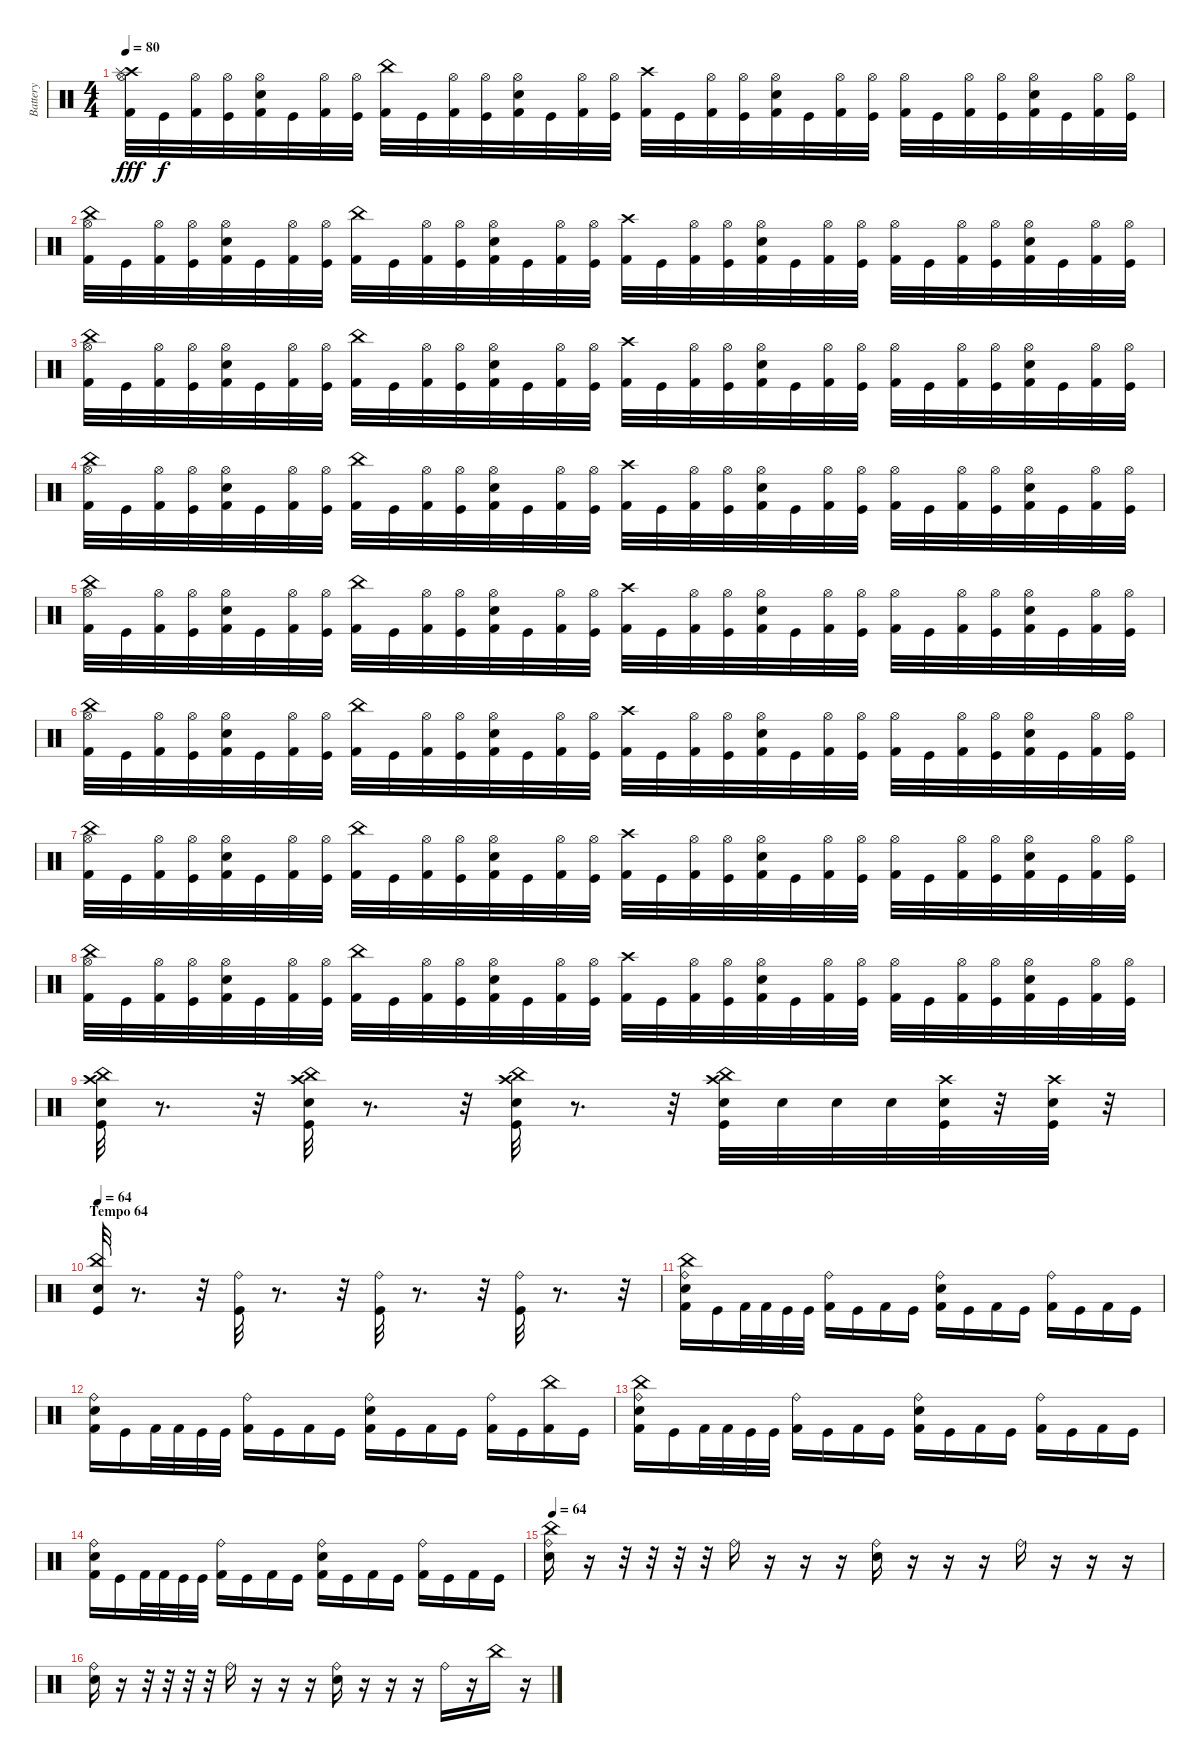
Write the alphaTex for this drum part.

\track ("Battery" "Battery") {instrument percussion}
\staff {score}
\articulation defaults
\ts (4 4)
\tempo 80
\clef neutral
\ks c
("Crash high (hit)" "Splash (hit)" "Kick (hit) 2" "Hi-Hat (open)").32{dy fff} "Kick (hit)".32{dy f} ("Kick (hit) 2" "Hi-Hat (open)").32 ("Hi-Hat (open)" "Kick (hit)").32 ("Kick (hit) 2" "Electric Snare (hit)" "Hi-Hat (open)").32 "Kick (hit)".32 ("Kick (hit) 2" "Hi-Hat (open)").32 ("Kick (hit)" "Hi-Hat (open)").32 ("Kick (hit) 2" "China (hit)").32 "Kick (hit)".32 ("Kick (hit) 2" "Hi-Hat (open)").32 ("Hi-Hat (open)" "Kick (hit)").32 ("Electric Snare (hit)" "Kick (hit) 2" "Hi-Hat (open)").32 "Kick (hit)".32 ("Hi-Hat (open)" "Kick (hit) 2").32 ("Hi-Hat (open)" "Kick (hit)").32 ("Crash high (hit)" "Kick (hit) 2").32 "Kick (hit)".32 ("Kick (hit) 2" "Hi-Hat (open)").32 ("Kick (hit)" "Hi-Hat (open)").32 ("Hi-Hat (open)" "Electric Snare (hit)" "Kick (hit) 2").32 "Kick (hit)".32 ("Kick (hit) 2" "Hi-Hat (open)").32 ("Hi-Hat (open)" "Kick (hit)").32 ("Hi-Hat (open)" "Kick (hit) 2").32 "Kick (hit)".32 ("Hi-Hat (open)" "Kick (hit) 2").32 ("Hi-Hat (open)" "Kick (hit)").32 ("Kick (hit) 2" "Hi-Hat (open)" "Electric Snare (hit)").32 "Kick (hit)".32 ("Hi-Hat (open)" "Kick (hit) 2").32 ("Hi-Hat (open)" "Kick (hit)").32 |
("Kick (hit) 2" "Hi-Hat (open)" "China (hit)").32 "Kick (hit)".32 ("Hi-Hat (open)" "Kick (hit) 2").32 ("Kick (hit)" "Hi-Hat (open)").32 ("Electric Snare (hit)" "Hi-Hat (open)" "Kick (hit) 2").32 "Kick (hit)".32 ("Kick (hit) 2" "Hi-Hat (open)").32 ("Kick (hit)" "Hi-Hat (open)").32 ("Kick (hit) 2" "China (hit)").32 "Kick (hit)".32 ("Kick (hit) 2" "Hi-Hat (open)").32 ("Kick (hit)" "Hi-Hat (open)").32 ("Kick (hit) 2" "Electric Snare (hit)" "Hi-Hat (open)").32 "Kick (hit)".32 ("Kick (hit) 2" "Hi-Hat (open)").32 ("Hi-Hat (open)" "Kick (hit)").32 ("Kick (hit) 2" "Crash high (hit)").32 "Kick (hit)".32 ("Hi-Hat (open)" "Kick (hit) 2").32 ("Hi-Hat (open)" "Kick (hit)").32 ("Kick (hit) 2" "Hi-Hat (open)" "Electric Snare (hit)").32 "Kick (hit)".32 ("Hi-Hat (open)" "Kick (hit) 2").32 ("Kick (hit)" "Hi-Hat (open)").32 ("Kick (hit) 2" "Hi-Hat (open)").32 "Kick (hit)".32 ("Hi-Hat (open)" "Kick (hit) 2").32 ("Kick (hit)" "Hi-Hat (open)").32 ("Hi-Hat (open)" "Electric Snare (hit)" "Kick (hit) 2").32 "Kick (hit)".32 ("Hi-Hat (open)" "Kick (hit) 2").32 ("Hi-Hat (open)" "Kick (hit)").32 |
("Hi-Hat (open)" "China (hit)" "Kick (hit) 2").32 "Kick (hit)".32 ("Hi-Hat (open)" "Kick (hit) 2").32 ("Kick (hit)" "Hi-Hat (open)").32 ("Hi-Hat (open)" "Electric Snare (hit)" "Kick (hit) 2").32 "Kick (hit)".32 ("Kick (hit) 2" "Hi-Hat (open)").32 ("Kick (hit)" "Hi-Hat (open)").32 ("Kick (hit) 2" "China (hit)").32 "Kick (hit)".32 ("Kick (hit) 2" "Hi-Hat (open)").32 ("Kick (hit)" "Hi-Hat (open)").32 ("Hi-Hat (open)" "Kick (hit) 2" "Electric Snare (hit)").32 "Kick (hit)".32 ("Kick (hit) 2" "Hi-Hat (open)").32 ("Kick (hit)" "Hi-Hat (open)").32 ("Crash high (hit)" "Kick (hit) 2").32 "Kick (hit)".32 ("Kick (hit) 2" "Hi-Hat (open)").32 ("Hi-Hat (open)" "Kick (hit)").32 ("Hi-Hat (open)" "Kick (hit) 2" "Electric Snare (hit)").32 "Kick (hit)".32 ("Kick (hit) 2" "Hi-Hat (open)").32 ("Kick (hit)" "Hi-Hat (open)").32 ("Hi-Hat (open)" "Kick (hit) 2").32 "Kick (hit)".32 ("Hi-Hat (open)" "Kick (hit) 2").32 ("Hi-Hat (open)" "Kick (hit)").32 ("Electric Snare (hit)" "Hi-Hat (open)" "Kick (hit) 2").32 "Kick (hit)".32 ("Hi-Hat (open)" "Kick (hit) 2").32 ("Kick (hit)" "Hi-Hat (open)").32 |
("Hi-Hat (open)" "Kick (hit) 2" "China (hit)").32 "Kick (hit)".32 ("Hi-Hat (open)" "Kick (hit) 2").32 ("Kick (hit)" "Hi-Hat (open)").32 ("Electric Snare (hit)" "Hi-Hat (open)" "Kick (hit) 2").32 "Kick (hit)".32 ("Kick (hit) 2" "Hi-Hat (open)").32 ("Hi-Hat (open)" "Kick (hit)").32 ("China (hit)" "Kick (hit) 2").32 "Kick (hit)".32 ("Hi-Hat (open)" "Kick (hit) 2").32 ("Hi-Hat (open)" "Kick (hit)").32 ("Electric Snare (hit)" "Kick (hit) 2" "Hi-Hat (open)").32 "Kick (hit)".32 ("Kick (hit) 2" "Hi-Hat (open)").32 ("Kick (hit)" "Hi-Hat (open)").32 ("Kick (hit) 2" "Crash high (hit)").32 "Kick (hit)".32 ("Hi-Hat (open)" "Kick (hit) 2").32 ("Hi-Hat (open)" "Kick (hit)").32 ("Hi-Hat (open)" "Electric Snare (hit)" "Kick (hit) 2").32 "Kick (hit)".32 ("Hi-Hat (open)" "Kick (hit) 2").32 ("Hi-Hat (open)" "Kick (hit)").32 ("Hi-Hat (open)" "Kick (hit) 2").32 "Kick (hit)".32 ("Hi-Hat (open)" "Kick (hit) 2").32 ("Kick (hit)" "Hi-Hat (open)").32 ("Kick (hit) 2" "Electric Snare (hit)" "Hi-Hat (open)").32 "Kick (hit)".32 ("Hi-Hat (open)" "Kick (hit) 2").32 ("Hi-Hat (open)" "Kick (hit)").32 |
("Kick (hit) 2" "Hi-Hat (open)" "China (hit)").32 "Kick (hit)".32 ("Hi-Hat (open)" "Kick (hit) 2").32 ("Kick (hit)" "Hi-Hat (open)").32 ("Electric Snare (hit)" "Kick (hit) 2" "Hi-Hat (open)").32 "Kick (hit)".32 ("Kick (hit) 2" "Hi-Hat (open)").32 ("Hi-Hat (open)" "Kick (hit)").32 ("Kick (hit) 2" "China (hit)").32 "Kick (hit)".32 ("Hi-Hat (open)" "Kick (hit) 2").32 ("Kick (hit)" "Hi-Hat (open)").32 ("Kick (hit) 2" "Electric Snare (hit)" "Hi-Hat (open)").32 "Kick (hit)".32 ("Kick (hit) 2" "Hi-Hat (open)").32 ("Hi-Hat (open)" "Kick (hit)").32 ("Crash high (hit)" "Kick (hit) 2").32 "Kick (hit)".32 ("Kick (hit) 2" "Hi-Hat (open)").32 ("Kick (hit)" "Hi-Hat (open)").32 ("Electric Snare (hit)" "Hi-Hat (open)" "Kick (hit) 2").32 "Kick (hit)".32 ("Hi-Hat (open)" "Kick (hit) 2").32 ("Hi-Hat (open)" "Kick (hit)").32 ("Hi-Hat (open)" "Kick (hit) 2").32 "Kick (hit)".32 ("Hi-Hat (open)" "Kick (hit) 2").32 ("Kick (hit)" "Hi-Hat (open)").32 ("Hi-Hat (open)" "Electric Snare (hit)" "Kick (hit) 2").32 "Kick (hit)".32 ("Kick (hit) 2" "Hi-Hat (open)").32 ("Hi-Hat (open)" "Kick (hit)").32 |
("Kick (hit) 2" "China (hit)" "Hi-Hat (open)").32 "Kick (hit)".32 ("Kick (hit) 2" "Hi-Hat (open)").32 ("Hi-Hat (open)" "Kick (hit)").32 ("Electric Snare (hit)" "Kick (hit) 2" "Hi-Hat (open)").32 "Kick (hit)".32 ("Hi-Hat (open)" "Kick (hit) 2").32 ("Kick (hit)" "Hi-Hat (open)").32 ("China (hit)" "Kick (hit) 2").32 "Kick (hit)".32 ("Hi-Hat (open)" "Kick (hit) 2").32 ("Hi-Hat (open)" "Kick (hit)").32 ("Electric Snare (hit)" "Kick (hit) 2" "Hi-Hat (open)").32 "Kick (hit)".32 ("Kick (hit) 2" "Hi-Hat (open)").32 ("Hi-Hat (open)" "Kick (hit)").32 ("Crash high (hit)" "Kick (hit) 2").32 "Kick (hit)".32 ("Kick (hit) 2" "Hi-Hat (open)").32 ("Kick (hit)" "Hi-Hat (open)").32 ("Kick (hit) 2" "Hi-Hat (open)" "Electric Snare (hit)").32 "Kick (hit)".32 ("Kick (hit) 2" "Hi-Hat (open)").32 ("Hi-Hat (open)" "Kick (hit)").32 ("Hi-Hat (open)" "Kick (hit) 2").32 "Kick (hit)".32 ("Kick (hit) 2" "Hi-Hat (open)").32 ("Hi-Hat (open)" "Kick (hit)").32 ("Kick (hit) 2" "Hi-Hat (open)" "Electric Snare (hit)").32 "Kick (hit)".32 ("Hi-Hat (open)" "Kick (hit) 2").32 ("Hi-Hat (open)" "Kick (hit)").32 |
("Kick (hit) 2" "Hi-Hat (open)" "China (hit)").32 "Kick (hit)".32 ("Hi-Hat (open)" "Kick (hit) 2").32 ("Kick (hit)" "Hi-Hat (open)").32 ("Kick (hit) 2" "Electric Snare (hit)" "Hi-Hat (open)").32 "Kick (hit)".32 ("Hi-Hat (open)" "Kick (hit) 2").32 ("Hi-Hat (open)" "Kick (hit)").32 ("China (hit)" "Kick (hit) 2").32 "Kick (hit)".32 ("Kick (hit) 2" "Hi-Hat (open)").32 ("Hi-Hat (open)" "Kick (hit)").32 ("Electric Snare (hit)" "Hi-Hat (open)" "Kick (hit) 2").32 "Kick (hit)".32 ("Kick (hit) 2" "Hi-Hat (open)").32 ("Kick (hit)" "Hi-Hat (open)").32 ("Kick (hit) 2" "Crash high (hit)").32 "Kick (hit)".32 ("Hi-Hat (open)" "Kick (hit) 2").32 ("Kick (hit)" "Hi-Hat (open)").32 ("Kick (hit) 2" "Electric Snare (hit)" "Hi-Hat (open)").32 "Kick (hit)".32 ("Kick (hit) 2" "Hi-Hat (open)").32 ("Hi-Hat (open)" "Kick (hit)").32 ("Hi-Hat (open)" "Kick (hit) 2").32 "Kick (hit)".32 ("Kick (hit) 2" "Hi-Hat (open)").32 ("Kick (hit)" "Hi-Hat (open)").32 ("Hi-Hat (open)" "Kick (hit) 2" "Electric Snare (hit)").32 "Kick (hit)".32 ("Kick (hit) 2" "Hi-Hat (open)").32 ("Hi-Hat (open)" "Kick (hit)").32 |
("China (hit)" "Hi-Hat (open)" "Kick (hit) 2").32 "Kick (hit)".32 ("Kick (hit) 2" "Hi-Hat (open)").32 ("Kick (hit)" "Hi-Hat (open)").32 ("Hi-Hat (open)" "Electric Snare (hit)" "Kick (hit) 2").32 "Kick (hit)".32 ("Kick (hit) 2" "Hi-Hat (open)").32 ("Kick (hit)" "Hi-Hat (open)").32 ("Kick (hit) 2" "China (hit)").32 "Kick (hit)".32 ("Kick (hit) 2" "Hi-Hat (open)").32 ("Hi-Hat (open)" "Kick (hit)").32 ("Electric Snare (hit)" "Hi-Hat (open)" "Kick (hit) 2").32 "Kick (hit)".32 ("Kick (hit) 2" "Hi-Hat (open)").32 ("Hi-Hat (open)" "Kick (hit)").32 ("Kick (hit) 2" "Crash high (hit)").32 "Kick (hit)".32 ("Kick (hit) 2" "Hi-Hat (open)").32 ("Kick (hit)" "Hi-Hat (open)").32 ("Hi-Hat (open)" "Electric Snare (hit)" "Kick (hit) 2").32 "Kick (hit)".32 ("Hi-Hat (open)" "Kick (hit) 2").32 ("Kick (hit)" "Hi-Hat (open)").32 ("Kick (hit) 2" "Hi-Hat (open)").32 "Kick (hit)".32 ("Kick (hit) 2" "Hi-Hat (open)").32 ("Hi-Hat (open)" "Kick (hit)").32 ("Hi-Hat (open)" "Electric Snare (hit)" "Kick (hit) 2").32 "Kick (hit)".32 ("Hi-Hat (open)" "Kick (hit) 2").32 ("Hi-Hat (open)" "Kick (hit)").32 |
("China (hit)" "Crash high (hit)" "Electric Snare (hit)" "Kick (hit)").32 r.8{d} r.32 ("China (hit)" "Kick (hit)" "Crash high (hit)" "Electric Snare (hit)").32 r.8{d} r.32 ("China (hit)" "Electric Snare (hit)" "Kick (hit)" "Crash high (hit)").32 r.8{d} r.32 ("Crash high (hit)" "Kick (hit)" "China (hit)" "Electric Snare (hit)").32 "Electric Snare (hit)".32 "Electric Snare (hit)".32 "Electric Snare (hit)".32 ("Kick (hit)" "Electric Snare (hit)" "Crash high (hit)").32 r.32 ("Crash high (hit)" "Kick (hit)" "Electric Snare (hit)").32 r.32 |
\section ("" "Tempo 64")
\tempo 64
("China (hit)" "Kick (hit)" "Snare (hit) 2").32 r.8{d} r.32 ("Kick (hit)" "Ride (bell)").32 r.8{d} r.32 ("Kick (hit)" "Ride (bell)").32 r.8{d} r.32 ("Ride (bell)" "Kick (hit)").32 r.8{d} r.32 |
("Kick (hit) 2" "Ride (bell)" "Electric Snare (hit)" "China (hit)").16 "Kick (hit)".16 "Kick (hit) 2".32 "Kick (hit) 2".32 "Kick (hit)".32 "Kick (hit)".32 ("Ride (bell)" "Kick (hit) 2").16 "Kick (hit)".16 "Kick (hit) 2".16 "Kick (hit)".16 ("Electric Snare (hit)" "Ride (bell)" "Kick (hit) 2").16 "Kick (hit)".16 "Kick (hit) 2".16 "Kick (hit)".16 ("Kick (hit) 2" "Ride (bell)").16 "Kick (hit)".16 "Kick (hit) 2".16 "Kick (hit)".16 |
("Electric Snare (hit)" "Kick (hit) 2" "Ride (bell)").16 "Kick (hit)".16 "Kick (hit) 2".32 "Kick (hit) 2".32 "Kick (hit)".32 "Kick (hit)".32 ("Ride (bell)" "Kick (hit) 2").16 "Kick (hit)".16 "Kick (hit) 2".16 "Kick (hit)".16 ("Electric Snare (hit)" "Kick (hit) 2" "Ride (bell)").16 "Kick (hit)".16 "Kick (hit) 2".16 "Kick (hit)".16 ("Kick (hit) 2" "Ride (bell)").16 "Kick (hit)".16 ("China (hit)" "Kick (hit) 2").16 "Kick (hit)".16 |
("Ride (bell)" "Electric Snare (hit)" "Kick (hit) 2" "China (hit)").16 "Kick (hit)".16 "Kick (hit) 2".32 "Kick (hit) 2".32 "Kick (hit)".32 "Kick (hit)".32 ("Ride (bell)" "Kick (hit) 2").16 "Kick (hit)".16 "Kick (hit) 2".16 "Kick (hit)".16 ("Ride (bell)" "Electric Snare (hit)" "Kick (hit) 2").16 "Kick (hit)".16 "Kick (hit) 2".16 "Kick (hit)".16 ("Kick (hit) 2" "Ride (bell)").16 "Kick (hit)".16 "Kick (hit) 2".16 "Kick (hit)".16 |
("Kick (hit) 2" "Electric Snare (hit)" "Ride (bell)").16 "Kick (hit)".16 "Kick (hit) 2".32 "Kick (hit) 2".32 "Kick (hit)".32 "Kick (hit)".32 ("Kick (hit) 2" "Ride (bell)").16 "Kick (hit)".16 "Kick (hit) 2".16 "Kick (hit)".16 ("Electric Snare (hit)" "Kick (hit) 2" "Ride (bell)").16 "Kick (hit)".16 "Kick (hit) 2".16 "Kick (hit)".16 ("Ride (bell)" "Kick (hit) 2").16 "Kick (hit)".16 "Kick (hit) 2".16 "Kick (hit)".16 |
\tempo 64
("Electric Snare (hit)" "Ride (bell)" "China (hit)").16 r.16 r.32 r.32 r.32 r.32 "Ride (bell)".16 r.16 r.16 r.16 ("Electric Snare (hit)" "Ride (bell)").16 r.16 r.16 r.16 "Ride (bell)".16 r.16 r.16 r.16 |
("Ride (bell)" "Electric Snare (hit)").16 r.16 r.32 r.32 r.32 r.32 "Ride (bell)".16 r.16 r.16 r.16 ("Electric Snare (hit)" "Ride (bell)").16 r.16 r.16 r.16 "Ride (bell)".16 r.16 "China (hit)".16 r.16
